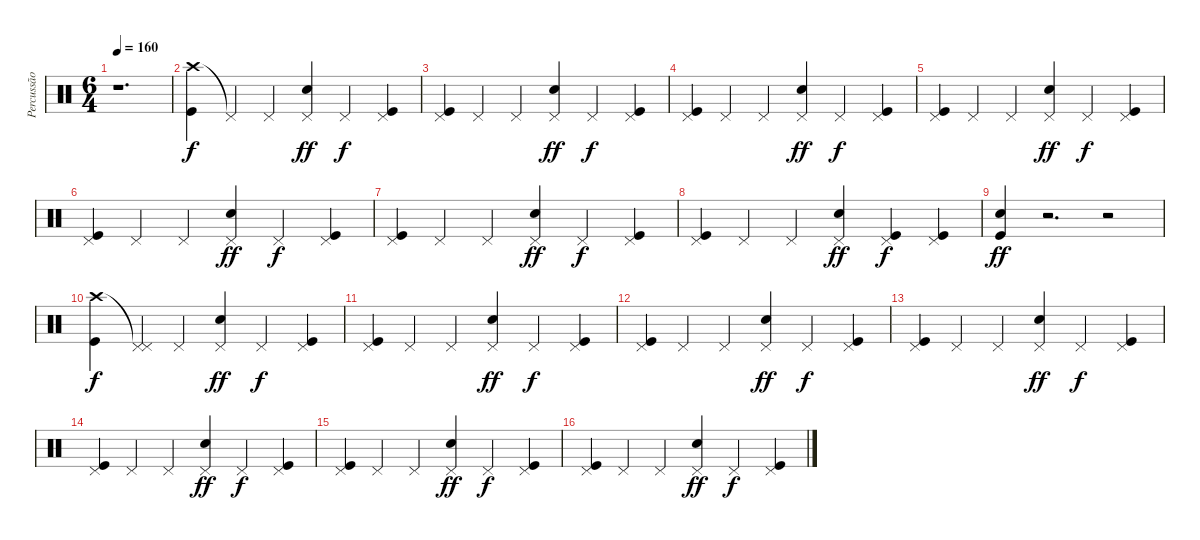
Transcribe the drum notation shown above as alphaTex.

\track ("Percussão" "Percussão") {instrument percussion}
\staff {score}
\articulation defaults
\ts (6 4)
\section ("" "")
\tempo 160
\clef neutral
\ks c
r.1{d dy f} |
\section ("" "")
("Crash high (hit)" "Kick (hit)").4 "Pedal Hi-Hat (hit)"{t}.4 "Pedal Hi-Hat (hit)".4 ("Pedal Hi-Hat (hit)" "Snare (hit) 2").4{dy ff} "Pedal Hi-Hat (hit)".4{dy f} ("Pedal Hi-Hat (hit)" "Kick (hit)").4 |
("Pedal Hi-Hat (hit)" "Kick (hit)").4 "Pedal Hi-Hat (hit)".4 "Pedal Hi-Hat (hit)".4 ("Pedal Hi-Hat (hit)" "Snare (hit) 2").4{dy ff} "Pedal Hi-Hat (hit)".4{dy f} ("Pedal Hi-Hat (hit)" "Kick (hit)").4 |
("Pedal Hi-Hat (hit)" "Kick (hit)").4 "Pedal Hi-Hat (hit)".4 "Pedal Hi-Hat (hit)".4 ("Pedal Hi-Hat (hit)" "Snare (hit) 2").4{dy ff} "Pedal Hi-Hat (hit)".4{dy f} ("Pedal Hi-Hat (hit)" "Kick (hit)").4 |
("Pedal Hi-Hat (hit)" "Kick (hit)").4 "Pedal Hi-Hat (hit)".4 "Pedal Hi-Hat (hit)".4 ("Pedal Hi-Hat (hit)" "Snare (hit) 2").4{dy ff} "Pedal Hi-Hat (hit)".4{dy f} ("Pedal Hi-Hat (hit)" "Kick (hit)").4 |
("Pedal Hi-Hat (hit)" "Kick (hit)").4 "Pedal Hi-Hat (hit)".4 "Pedal Hi-Hat (hit)".4 ("Pedal Hi-Hat (hit)" "Snare (hit) 2").4{dy ff} "Pedal Hi-Hat (hit)".4{dy f} ("Pedal Hi-Hat (hit)" "Kick (hit)").4 |
("Pedal Hi-Hat (hit)" "Kick (hit)").4 "Pedal Hi-Hat (hit)".4 "Pedal Hi-Hat (hit)".4 ("Pedal Hi-Hat (hit)" "Snare (hit) 2").4{dy ff} "Pedal Hi-Hat (hit)".4{dy f} ("Pedal Hi-Hat (hit)" "Kick (hit)").4 |
("Pedal Hi-Hat (hit)" "Kick (hit)").4 "Pedal Hi-Hat (hit)".4 "Pedal Hi-Hat (hit)".4 ("Pedal Hi-Hat (hit)" "Snare (hit) 2").4{dy ff} ("Pedal Hi-Hat (hit)" "Kick (hit)").4{dy f} ("Pedal Hi-Hat (hit)" "Kick (hit)").4 |
("Snare (hit) 2" "Kick (hit)").4{dy ff} r.2{d} r.2 |
("Crash high (hit)" "Kick (hit)").4{dy f} ("Pedal Hi-Hat (hit)"{t} "Pedal Hi-Hat (hit)").4 "Pedal Hi-Hat (hit)".4 ("Pedal Hi-Hat (hit)" "Snare (hit) 2").4{dy ff} "Pedal Hi-Hat (hit)".4{dy f} ("Pedal Hi-Hat (hit)" "Kick (hit)").4 |
("Pedal Hi-Hat (hit)" "Kick (hit)").4 "Pedal Hi-Hat (hit)".4 "Pedal Hi-Hat (hit)".4 ("Pedal Hi-Hat (hit)" "Snare (hit) 2").4{dy ff} "Pedal Hi-Hat (hit)".4{dy f} ("Pedal Hi-Hat (hit)" "Kick (hit)").4 |
("Pedal Hi-Hat (hit)" "Kick (hit)").4 "Pedal Hi-Hat (hit)".4 "Pedal Hi-Hat (hit)".4 ("Pedal Hi-Hat (hit)" "Snare (hit) 2").4{dy ff} "Pedal Hi-Hat (hit)".4{dy f} ("Pedal Hi-Hat (hit)" "Kick (hit)").4 |
("Pedal Hi-Hat (hit)" "Kick (hit)").4 "Pedal Hi-Hat (hit)".4 "Pedal Hi-Hat (hit)".4 ("Pedal Hi-Hat (hit)" "Snare (hit) 2").4{dy ff} "Pedal Hi-Hat (hit)".4{dy f} ("Pedal Hi-Hat (hit)" "Kick (hit)").4 |
("Pedal Hi-Hat (hit)" "Kick (hit)").4 "Pedal Hi-Hat (hit)".4 "Pedal Hi-Hat (hit)".4 ("Pedal Hi-Hat (hit)" "Snare (hit) 2").4{dy ff} "Pedal Hi-Hat (hit)".4{dy f} ("Pedal Hi-Hat (hit)" "Kick (hit)").4 |
("Pedal Hi-Hat (hit)" "Kick (hit)").4 "Pedal Hi-Hat (hit)".4 "Pedal Hi-Hat (hit)".4 ("Pedal Hi-Hat (hit)" "Snare (hit) 2").4{dy ff} "Pedal Hi-Hat (hit)".4{dy f} ("Pedal Hi-Hat (hit)" "Kick (hit)").4 |
("Pedal Hi-Hat (hit)" "Kick (hit)").4 "Pedal Hi-Hat (hit)".4 "Pedal Hi-Hat (hit)".4 ("Pedal Hi-Hat (hit)" "Snare (hit) 2").4{dy ff} "Pedal Hi-Hat (hit)".4{dy f} ("Pedal Hi-Hat (hit)" "Kick (hit)").4
